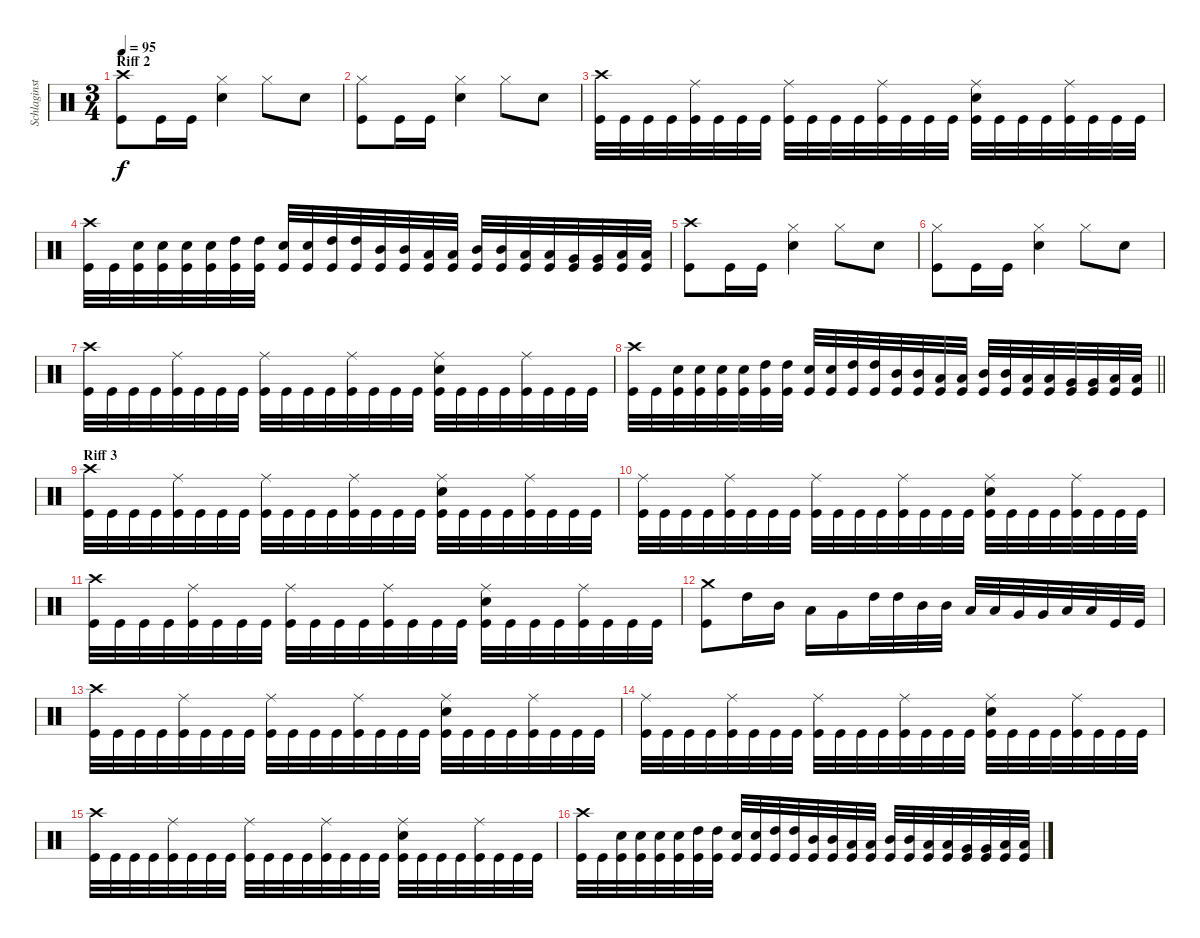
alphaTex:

\track ("Schlaginstrumente - Auswahl" "Schlaginst") {instrument percussion}
\staff {score}
\articulation defaults
\ts (3 4)
\section ("" "Riff 2")
\tempo 95
\clef neutral
\ks c
("Crash high (hit)" "Kick (hit)").8{dy f} "Kick (hit)".16 "Kick (hit)".16 ("Hi-Hat (closed)" "Snare (hit) 2").4 "Hi-Hat (closed)".8 "Snare (hit) 2".8 |
("Hi-Hat (closed)" "Kick (hit)").8 "Kick (hit)".16 "Kick (hit)".16 ("Hi-Hat (closed)" "Snare (hit) 2").4 "Hi-Hat (closed)".8 "Snare (hit) 2".8 |
("Kick (hit)" "Crash high (hit)").32 "Kick (hit)".32 "Kick (hit)".32 "Kick (hit)".32 ("Kick (hit)" "Ride (middle)").32 "Kick (hit)".32 "Kick (hit)".32 "Kick (hit)".32 ("Kick (hit)" "Ride (middle)").32 "Kick (hit)".32 "Kick (hit)".32 "Kick (hit)".32 ("Kick (hit)" "Ride (middle)").32 "Kick (hit)".32 "Kick (hit)".32 "Kick (hit)".32 ("Kick (hit)" "Ride (middle)" "Snare (hit) 2").32 "Kick (hit)".32 "Kick (hit)".32 "Kick (hit)".32 ("Kick (hit)" "Ride (middle)").32 "Kick (hit)".32 "Kick (hit)".32 "Kick (hit)".32 |
("Kick (hit)" "Crash high (hit)").32 "Kick (hit)".32 ("Kick (hit)" "Snare (hit) 2").32 ("Kick (hit)" "Snare (hit) 2").32 ("Kick (hit)" "Snare (hit) 2").32 ("Kick (hit)" "Snare (hit) 2").32 ("Kick (hit)" "High Tom (hit)").32 ("Kick (hit)" "High Tom (hit)").32 ("Snare (hit) 2" "Kick (hit)").32 ("Kick (hit)" "Snare (hit) 2").32 ("Kick (hit)" "High Tom (hit)").32 ("Kick (hit)" "High Tom (hit)").32 ("Kick (hit)" "Mid Tom (hit)").32 ("Kick (hit)" "Mid Tom (hit)").32 ("Kick (hit)" "Low Tom (hit)").32 ("Low Tom (hit)" "Kick (hit)").32 ("Kick (hit)" "Mid Tom (hit)").32 ("Kick (hit)" "Mid Tom (hit)").32 ("Kick (hit)" "Low Tom (hit)").32 ("Kick (hit)" "Low Tom (hit)").32 ("Kick (hit)" "Very Low Tom (hit)").32 ("Kick (hit)" "Very Low Tom (hit)").32 ("Kick (hit)" "Low Floor Tom (hit)").32 ("Kick (hit)" "Low Floor Tom (hit)").32 |
("Crash high (hit)" "Kick (hit)").8 "Kick (hit)".16 "Kick (hit)".16 ("Hi-Hat (closed)" "Snare (hit) 2").4 "Hi-Hat (closed)".8 "Snare (hit) 2".8 |
("Hi-Hat (closed)" "Kick (hit)").8 "Kick (hit)".16 "Kick (hit)".16 ("Hi-Hat (closed)" "Snare (hit) 2").4 "Hi-Hat (closed)".8 "Snare (hit) 2".8 |
("Kick (hit)" "Crash high (hit)").32 "Kick (hit)".32 "Kick (hit)".32 "Kick (hit)".32 ("Kick (hit)" "Ride (middle)").32 "Kick (hit)".32 "Kick (hit)".32 "Kick (hit)".32 ("Kick (hit)" "Ride (middle)").32 "Kick (hit)".32 "Kick (hit)".32 "Kick (hit)".32 ("Kick (hit)" "Ride (middle)").32 "Kick (hit)".32 "Kick (hit)".32 "Kick (hit)".32 ("Kick (hit)" "Ride (middle)" "Snare (hit) 2").32 "Kick (hit)".32 "Kick (hit)".32 "Kick (hit)".32 ("Kick (hit)" "Ride (middle)").32 "Kick (hit)".32 "Kick (hit)".32 "Kick (hit)".32 |
\barLineRight lightlight
("Kick (hit)" "Crash high (hit)").32 "Kick (hit)".32 ("Kick (hit)" "Snare (hit) 2").32 ("Kick (hit)" "Snare (hit) 2").32 ("Kick (hit)" "Snare (hit) 2").32 ("Kick (hit)" "Snare (hit) 2").32 ("Kick (hit)" "High Tom (hit)").32 ("Kick (hit)" "High Tom (hit)").32 ("Snare (hit) 2" "Kick (hit)").32 ("Kick (hit)" "Snare (hit) 2").32 ("Kick (hit)" "High Tom (hit)").32 ("Kick (hit)" "High Tom (hit)").32 ("Kick (hit)" "Mid Tom (hit)").32 ("Kick (hit)" "Mid Tom (hit)").32 ("Kick (hit)" "Low Tom (hit)").32 ("Low Tom (hit)" "Kick (hit)").32 ("Kick (hit)" "Mid Tom (hit)").32 ("Kick (hit)" "Mid Tom (hit)").32 ("Kick (hit)" "Low Tom (hit)").32 ("Kick (hit)" "Low Tom (hit)").32 ("Kick (hit)" "Very Low Tom (hit)").32 ("Kick (hit)" "Very Low Tom (hit)").32 ("Kick (hit)" "Low Floor Tom (hit)").32 ("Kick (hit)" "Low Floor Tom (hit)").32 |
\section ("" "Riff 3")
("Kick (hit)" "Crash high (hit)").32 "Kick (hit)".32 "Kick (hit)".32 "Kick (hit)".32 ("Kick (hit)" "Ride (middle)").32 "Kick (hit)".32 "Kick (hit)".32 "Kick (hit)".32 ("Kick (hit)" "Ride (middle)").32 "Kick (hit)".32 "Kick (hit)".32 "Kick (hit)".32 ("Kick (hit)" "Ride (middle)").32 "Kick (hit)".32 "Kick (hit)".32 "Kick (hit)".32 ("Kick (hit)" "Ride (middle)" "Snare (hit) 2").32 "Kick (hit)".32 "Kick (hit)".32 "Kick (hit)".32 ("Kick (hit)" "Ride (middle)").32 "Kick (hit)".32 "Kick (hit)".32 "Kick (hit)".32 |
("Kick (hit)" "Ride (middle)").32 "Kick (hit)".32 "Kick (hit)".32 "Kick (hit)".32 ("Kick (hit)" "Ride (middle)").32 "Kick (hit)".32 "Kick (hit)".32 "Kick (hit)".32 ("Kick (hit)" "Ride (middle)").32 "Kick (hit)".32 "Kick (hit)".32 "Kick (hit)".32 ("Kick (hit)" "Ride (middle)").32 "Kick (hit)".32 "Kick (hit)".32 "Kick (hit)".32 ("Kick (hit)" "Ride (middle)" "Snare (hit) 2").32 "Kick (hit)".32 "Kick (hit)".32 "Kick (hit)".32 ("Kick (hit)" "Ride (middle)").32 "Kick (hit)".32 "Kick (hit)".32 "Kick (hit)".32 |
("Kick (hit)" "Crash high (hit)").32 "Kick (hit)".32 "Kick (hit)".32 "Kick (hit)".32 ("Kick (hit)" "Ride (middle)").32 "Kick (hit)".32 "Kick (hit)".32 "Kick (hit)".32 ("Kick (hit)" "Ride (middle)").32 "Kick (hit)".32 "Kick (hit)".32 "Kick (hit)".32 ("Kick (hit)" "Ride (middle)").32 "Kick (hit)".32 "Kick (hit)".32 "Kick (hit)".32 ("Kick (hit)" "Ride (middle)" "Snare (hit) 2").32 "Kick (hit)".32 "Kick (hit)".32 "Kick (hit)".32 ("Kick (hit)" "Ride (middle)").32 "Kick (hit)".32 "Kick (hit)".32 "Kick (hit)".32 |
("Kick (hit)" "Crash medium (hit)").8 "High Tom (hit)".16 "Mid Tom (hit)".16 "Low Tom (hit)".16 "Very Low Tom (hit)".16 "High Tom (hit)".32 "High Tom (hit)".32 "Mid Tom (hit)".32 "Mid Tom (hit)".32 "Low Tom (hit)".32 "Low Tom (hit)".32 "Very Low Tom (hit)".32 "Very Low Tom (hit)".32 "Low Floor Tom (hit)".32 "Low Floor Tom (hit)".32 "Kick (hit)".32 "Kick (hit)".32 |
("Kick (hit)" "Crash high (hit)").32 "Kick (hit)".32 "Kick (hit)".32 "Kick (hit)".32 ("Kick (hit)" "Ride (middle)").32 "Kick (hit)".32 "Kick (hit)".32 "Kick (hit)".32 ("Kick (hit)" "Ride (middle)").32 "Kick (hit)".32 "Kick (hit)".32 "Kick (hit)".32 ("Kick (hit)" "Ride (middle)").32 "Kick (hit)".32 "Kick (hit)".32 "Kick (hit)".32 ("Kick (hit)" "Ride (middle)" "Snare (hit) 2").32 "Kick (hit)".32 "Kick (hit)".32 "Kick (hit)".32 ("Kick (hit)" "Ride (middle)").32 "Kick (hit)".32 "Kick (hit)".32 "Kick (hit)".32 |
("Kick (hit)" "Ride (middle)").32 "Kick (hit)".32 "Kick (hit)".32 "Kick (hit)".32 ("Kick (hit)" "Ride (middle)").32 "Kick (hit)".32 "Kick (hit)".32 "Kick (hit)".32 ("Kick (hit)" "Ride (middle)").32 "Kick (hit)".32 "Kick (hit)".32 "Kick (hit)".32 ("Kick (hit)" "Ride (middle)").32 "Kick (hit)".32 "Kick (hit)".32 "Kick (hit)".32 ("Kick (hit)" "Ride (middle)" "Snare (hit) 2").32 "Kick (hit)".32 "Kick (hit)".32 "Kick (hit)".32 ("Kick (hit)" "Ride (middle)").32 "Kick (hit)".32 "Kick (hit)".32 "Kick (hit)".32 |
("Kick (hit)" "Crash high (hit)").32 "Kick (hit)".32 "Kick (hit)".32 "Kick (hit)".32 ("Kick (hit)" "Ride (middle)").32 "Kick (hit)".32 "Kick (hit)".32 "Kick (hit)".32 ("Kick (hit)" "Ride (middle)").32 "Kick (hit)".32 "Kick (hit)".32 "Kick (hit)".32 ("Kick (hit)" "Ride (middle)").32 "Kick (hit)".32 "Kick (hit)".32 "Kick (hit)".32 ("Kick (hit)" "Ride (middle)" "Snare (hit) 2").32 "Kick (hit)".32 "Kick (hit)".32 "Kick (hit)".32 ("Kick (hit)" "Ride (middle)").32 "Kick (hit)".32 "Kick (hit)".32 "Kick (hit)".32 |
("Kick (hit)" "Crash high (hit)").32 "Kick (hit)".32 ("Kick (hit)" "Snare (hit) 2").32 ("Kick (hit)" "Snare (hit) 2").32 ("Kick (hit)" "Snare (hit) 2").32 ("Kick (hit)" "Snare (hit) 2").32 ("Kick (hit)" "High Tom (hit)").32 ("Kick (hit)" "High Tom (hit)").32 ("Snare (hit) 2" "Kick (hit)").32 ("Kick (hit)" "Snare (hit) 2").32 ("Kick (hit)" "High Tom (hit)").32 ("Kick (hit)" "High Tom (hit)").32 ("Kick (hit)" "Mid Tom (hit)").32 ("Kick (hit)" "Mid Tom (hit)").32 ("Kick (hit)" "Low Tom (hit)").32 ("Low Tom (hit)" "Kick (hit)").32 ("Kick (hit)" "Mid Tom (hit)").32 ("Kick (hit)" "Mid Tom (hit)").32 ("Kick (hit)" "Low Tom (hit)").32 ("Kick (hit)" "Low Tom (hit)").32 ("Kick (hit)" "Very Low Tom (hit)").32 ("Kick (hit)" "Very Low Tom (hit)").32 ("Kick (hit)" "Low Floor Tom (hit)").32 ("Kick (hit)" "Low Floor Tom (hit)").32
